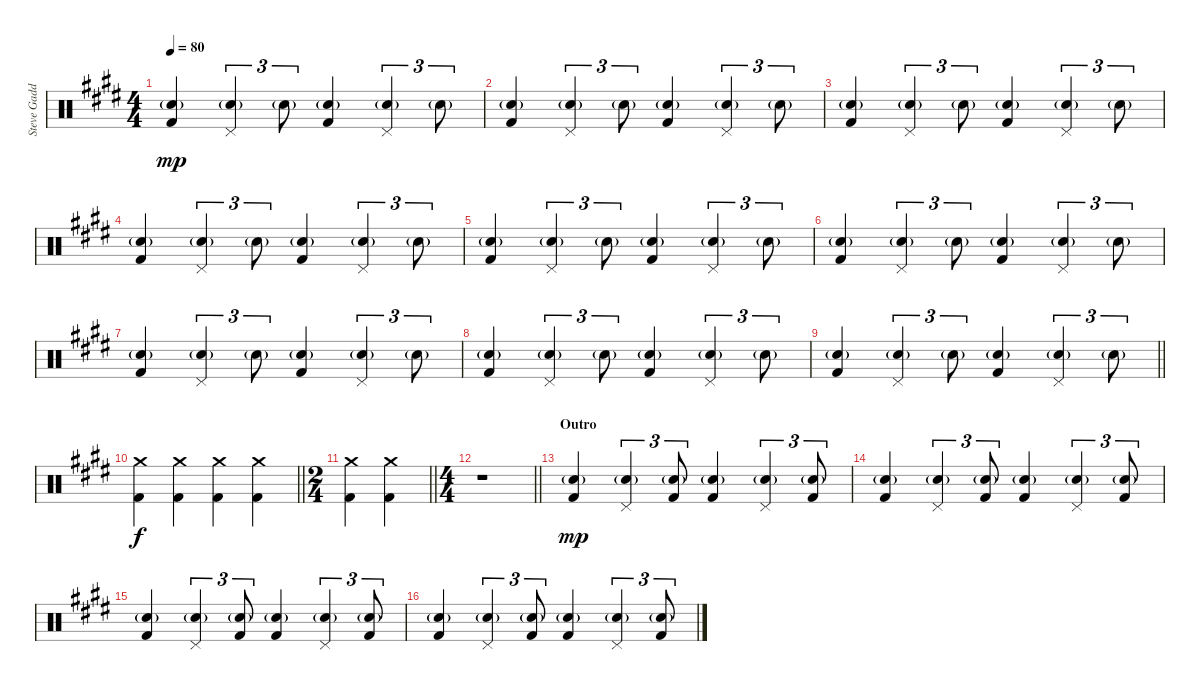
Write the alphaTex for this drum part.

\track ("Steve Gadd Drums" "Steve Gadd") {instrument percussion}
\staff {score}
\articulation defaults
\ts (4 4)
\tempo 80
\clef neutral
\ks e
("Snare (hit) 2"{g} "Kick (hit) 2").4{dy mp} ("Snare (hit) 2"{g} "Pedal Hi-Hat (hit)").4{tu (3 2)} "Snare (hit) 2"{g}.8{tu (3 2)} ("Snare (hit) 2"{g} "Kick (hit) 2").4 ("Snare (hit) 2"{g} "Pedal Hi-Hat (hit)").4{tu (3 2)} "Snare (hit) 2"{g}.8{tu (3 2)} |
("Snare (hit) 2"{g} "Kick (hit) 2").4 ("Snare (hit) 2"{g} "Pedal Hi-Hat (hit)").4{tu (3 2)} "Snare (hit) 2"{g}.8{tu (3 2)} ("Snare (hit) 2"{g} "Kick (hit) 2").4 ("Snare (hit) 2"{g} "Pedal Hi-Hat (hit)").4{tu (3 2)} "Snare (hit) 2"{g}.8{tu (3 2)} |
("Snare (hit) 2"{g} "Kick (hit) 2").4 ("Snare (hit) 2"{g} "Pedal Hi-Hat (hit)").4{tu (3 2)} "Snare (hit) 2"{g}.8{tu (3 2)} ("Snare (hit) 2"{g} "Kick (hit) 2").4 ("Snare (hit) 2"{g} "Pedal Hi-Hat (hit)").4{tu (3 2)} "Snare (hit) 2"{g}.8{tu (3 2)} |
("Snare (hit) 2"{g} "Kick (hit) 2").4 ("Snare (hit) 2"{g} "Pedal Hi-Hat (hit)").4{tu (3 2)} "Snare (hit) 2"{g}.8{tu (3 2)} ("Snare (hit) 2"{g} "Kick (hit) 2").4 ("Snare (hit) 2"{g} "Pedal Hi-Hat (hit)").4{tu (3 2)} "Snare (hit) 2"{g}.8{tu (3 2)} |
("Snare (hit) 2"{g} "Kick (hit) 2").4 ("Snare (hit) 2"{g} "Pedal Hi-Hat (hit)").4{tu (3 2)} "Snare (hit) 2"{g}.8{tu (3 2)} ("Snare (hit) 2"{g} "Kick (hit) 2").4 ("Snare (hit) 2"{g} "Pedal Hi-Hat (hit)").4{tu (3 2)} "Snare (hit) 2"{g}.8{tu (3 2)} |
("Snare (hit) 2"{g} "Kick (hit) 2").4 ("Snare (hit) 2"{g} "Pedal Hi-Hat (hit)").4{tu (3 2)} "Snare (hit) 2"{g}.8{tu (3 2)} ("Snare (hit) 2"{g} "Kick (hit) 2").4 ("Snare (hit) 2"{g} "Pedal Hi-Hat (hit)").4{tu (3 2)} "Snare (hit) 2"{g}.8{tu (3 2)} |
("Snare (hit) 2"{g} "Kick (hit) 2").4 ("Snare (hit) 2"{g} "Pedal Hi-Hat (hit)").4{tu (3 2)} "Snare (hit) 2"{g}.8{tu (3 2)} ("Snare (hit) 2"{g} "Kick (hit) 2").4 ("Snare (hit) 2"{g} "Pedal Hi-Hat (hit)").4{tu (3 2)} "Snare (hit) 2"{g}.8{tu (3 2)} |
("Snare (hit) 2"{g} "Kick (hit) 2").4 ("Snare (hit) 2"{g} "Pedal Hi-Hat (hit)").4{tu (3 2)} "Snare (hit) 2"{g}.8{tu (3 2)} ("Snare (hit) 2"{g} "Kick (hit) 2").4 ("Snare (hit) 2"{g} "Pedal Hi-Hat (hit)").4{tu (3 2)} "Snare (hit) 2"{g}.8{tu (3 2)} |
\barLineRight lightlight
("Snare (hit) 2"{g} "Kick (hit) 2").4 ("Snare (hit) 2"{g} "Pedal Hi-Hat (hit)").4{tu (3 2)} "Snare (hit) 2"{g}.8{tu (3 2)} ("Snare (hit) 2"{g} "Kick (hit) 2").4 ("Snare (hit) 2"{g} "Pedal Hi-Hat (hit)").4{tu (3 2)} "Snare (hit) 2"{g}.8{tu (3 2)} |
\barLineRight lightlight
("Crash medium (hit)" "Kick (hit) 2").4{dy f} ("Crash medium (hit)" "Kick (hit) 2").4 ("Crash medium (hit)" "Kick (hit) 2").4 ("Crash medium (hit)" "Kick (hit) 2").4 |
\ts (2 4)
\barLineRight lightlight
("Crash medium (hit)" "Kick (hit) 2").4 ("Crash medium (hit)" "Kick (hit) 2").4 |
\ts (4 4)
\barLineRight lightlight
r.1 |
\section ("" "Outro")
("Snare (hit) 2"{g} "Kick (hit) 2").4{dy mp} ("Snare (hit) 2"{g} "Pedal Hi-Hat (hit)").4{tu (3 2)} ("Snare (hit) 2"{g} "Kick (hit) 2").8{tu (3 2)} ("Snare (hit) 2"{g} "Kick (hit) 2").4 ("Snare (hit) 2"{g} "Pedal Hi-Hat (hit)").4{tu (3 2)} ("Snare (hit) 2"{g} "Kick (hit) 2").8{tu (3 2)} |
("Snare (hit) 2"{g} "Kick (hit) 2").4 ("Snare (hit) 2"{g} "Pedal Hi-Hat (hit)").4{tu (3 2)} ("Snare (hit) 2"{g} "Kick (hit) 2").8{tu (3 2)} ("Snare (hit) 2"{g} "Kick (hit) 2").4 ("Snare (hit) 2"{g} "Pedal Hi-Hat (hit)").4{tu (3 2)} ("Snare (hit) 2"{g} "Kick (hit) 2").8{tu (3 2)} |
("Snare (hit) 2"{g} "Kick (hit) 2").4 ("Snare (hit) 2"{g} "Pedal Hi-Hat (hit)").4{tu (3 2)} ("Snare (hit) 2"{g} "Kick (hit) 2").8{tu (3 2)} ("Snare (hit) 2"{g} "Kick (hit) 2").4 ("Snare (hit) 2"{g} "Pedal Hi-Hat (hit)").4{tu (3 2)} ("Snare (hit) 2"{g} "Kick (hit) 2").8{tu (3 2)} |
("Snare (hit) 2"{g} "Kick (hit) 2").4 ("Snare (hit) 2"{g} "Pedal Hi-Hat (hit)").4{tu (3 2)} ("Snare (hit) 2"{g} "Kick (hit) 2").8{tu (3 2)} ("Snare (hit) 2"{g} "Kick (hit) 2").4 ("Snare (hit) 2"{g} "Pedal Hi-Hat (hit)").4{tu (3 2)} ("Snare (hit) 2"{g} "Kick (hit) 2").8{tu (3 2)}
